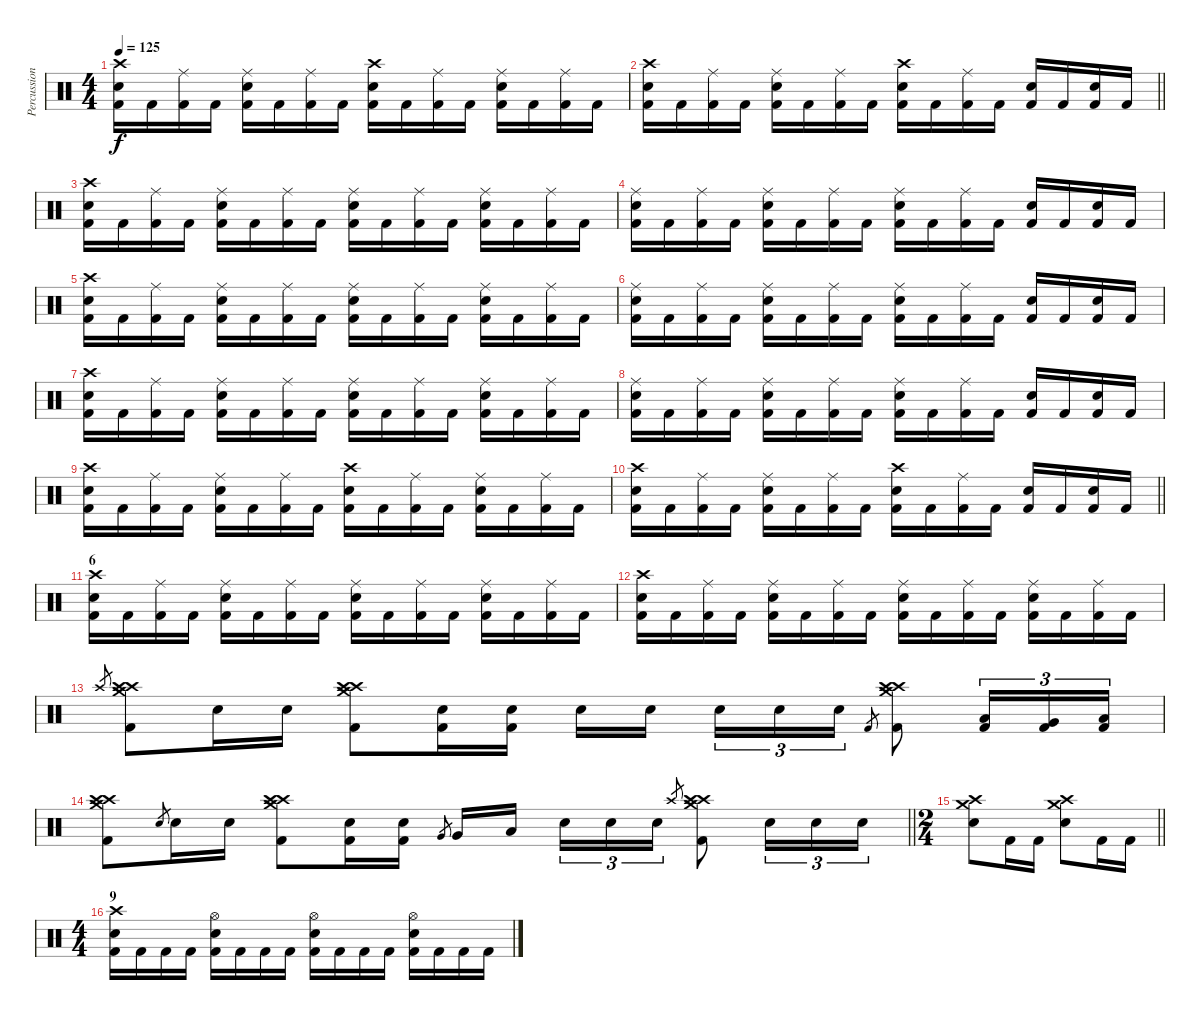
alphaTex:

\track ("Percussion" "Percussion") {instrument percussion}
\staff {score}
\articulation defaults
\ts (4 4)
\tempo 125
\clef neutral
\ks c
("Crash high (hit)" "Snare (hit) 2" "Kick (hit) 2").16{dy f} "Kick (hit) 2".16 ("Ride (middle)" "Kick (hit) 2").16 "Kick (hit) 2".16 ("Ride (middle)" "Snare (hit) 2" "Kick (hit) 2").16 "Kick (hit) 2".16 ("Ride (middle)" "Kick (hit) 2").16 "Kick (hit) 2".16 ("Crash high (hit)" "Snare (hit) 2" "Kick (hit) 2").16 "Kick (hit) 2".16 ("Ride (middle)" "Kick (hit) 2").16 "Kick (hit) 2".16 ("Ride (middle)" "Snare (hit) 2" "Kick (hit) 2").16 "Kick (hit) 2".16 ("Ride (middle)" "Kick (hit) 2").16 "Kick (hit) 2".16 |
\barLineRight lightlight
("Crash high (hit)" "Snare (hit) 2" "Kick (hit) 2").16 "Kick (hit) 2".16 ("Ride (middle)" "Kick (hit) 2").16 "Kick (hit) 2".16 ("Ride (middle)" "Snare (hit) 2" "Kick (hit) 2").16 "Kick (hit) 2".16 ("Ride (middle)" "Kick (hit) 2").16 "Kick (hit) 2".16 ("Crash high (hit)" "Snare (hit) 2" "Kick (hit) 2").16 "Kick (hit) 2".16 ("Ride (middle)" "Kick (hit) 2").16 "Kick (hit) 2".16 ("Snare (hit) 2" "Kick (hit) 2").16 "Kick (hit) 2".16 ("Snare (hit) 2" "Kick (hit) 2").16 "Kick (hit) 2".16 |
("Crash high (hit)" "Snare (hit) 2" "Kick (hit) 2").16 "Kick (hit) 2".16 ("Ride (middle)" "Kick (hit) 2").16 "Kick (hit) 2".16 ("Ride (middle)" "Snare (hit) 2" "Kick (hit) 2").16 "Kick (hit) 2".16 ("Ride (middle)" "Kick (hit) 2").16 "Kick (hit) 2".16 ("Ride (middle)" "Snare (hit) 2" "Kick (hit) 2").16 "Kick (hit) 2".16 ("Ride (middle)" "Kick (hit) 2").16 "Kick (hit) 2".16 ("Ride (middle)" "Snare (hit) 2" "Kick (hit) 2").16 "Kick (hit) 2".16 ("Ride (middle)" "Kick (hit) 2").16 "Kick (hit) 2".16 |
("Ride (middle)" "Snare (hit) 2" "Kick (hit) 2").16 "Kick (hit) 2".16 ("Ride (middle)" "Kick (hit) 2").16 "Kick (hit) 2".16 ("Ride (middle)" "Snare (hit) 2" "Kick (hit) 2").16 "Kick (hit) 2".16 ("Ride (middle)" "Kick (hit) 2").16 "Kick (hit) 2".16 ("Ride (middle)" "Snare (hit) 2" "Kick (hit) 2").16 "Kick (hit) 2".16 ("Ride (middle)" "Kick (hit) 2").16 "Kick (hit) 2".16 ("Snare (hit) 2" "Kick (hit) 2").16 "Kick (hit) 2".16 ("Snare (hit) 2" "Kick (hit) 2").16 "Kick (hit) 2".16 |
("Crash high (hit)" "Snare (hit) 2" "Kick (hit) 2").16 "Kick (hit) 2".16 ("Ride (middle)" "Kick (hit) 2").16 "Kick (hit) 2".16 ("Ride (middle)" "Snare (hit) 2" "Kick (hit) 2").16 "Kick (hit) 2".16 ("Ride (middle)" "Kick (hit) 2").16 "Kick (hit) 2".16 ("Ride (middle)" "Snare (hit) 2" "Kick (hit) 2").16 "Kick (hit) 2".16 ("Ride (middle)" "Kick (hit) 2").16 "Kick (hit) 2".16 ("Ride (middle)" "Snare (hit) 2" "Kick (hit) 2").16 "Kick (hit) 2".16 ("Ride (middle)" "Kick (hit) 2").16 "Kick (hit) 2".16 |
("Ride (middle)" "Snare (hit) 2" "Kick (hit) 2").16 "Kick (hit) 2".16 ("Ride (middle)" "Kick (hit) 2").16 "Kick (hit) 2".16 ("Ride (middle)" "Snare (hit) 2" "Kick (hit) 2").16 "Kick (hit) 2".16 ("Ride (middle)" "Kick (hit) 2").16 "Kick (hit) 2".16 ("Ride (middle)" "Snare (hit) 2" "Kick (hit) 2").16 "Kick (hit) 2".16 ("Ride (middle)" "Kick (hit) 2").16 "Kick (hit) 2".16 ("Snare (hit) 2" "Kick (hit) 2").16 "Kick (hit) 2".16 ("Snare (hit) 2" "Kick (hit) 2").16 "Kick (hit) 2".16 |
("Crash high (hit)" "Snare (hit) 2" "Kick (hit) 2").16 "Kick (hit) 2".16 ("Ride (middle)" "Kick (hit) 2").16 "Kick (hit) 2".16 ("Ride (middle)" "Snare (hit) 2" "Kick (hit) 2").16 "Kick (hit) 2".16 ("Ride (middle)" "Kick (hit) 2").16 "Kick (hit) 2".16 ("Ride (middle)" "Snare (hit) 2" "Kick (hit) 2").16 "Kick (hit) 2".16 ("Ride (middle)" "Kick (hit) 2").16 "Kick (hit) 2".16 ("Ride (middle)" "Snare (hit) 2" "Kick (hit) 2").16 "Kick (hit) 2".16 ("Ride (middle)" "Kick (hit) 2").16 "Kick (hit) 2".16 |
("Ride (middle)" "Snare (hit) 2" "Kick (hit) 2").16 "Kick (hit) 2".16 ("Ride (middle)" "Kick (hit) 2").16 "Kick (hit) 2".16 ("Ride (middle)" "Snare (hit) 2" "Kick (hit) 2").16 "Kick (hit) 2".16 ("Ride (middle)" "Kick (hit) 2").16 "Kick (hit) 2".16 ("Ride (middle)" "Snare (hit) 2" "Kick (hit) 2").16 "Kick (hit) 2".16 ("Ride (middle)" "Kick (hit) 2").16 "Kick (hit) 2".16 ("Snare (hit) 2" "Kick (hit) 2").16 "Kick (hit) 2".16 ("Snare (hit) 2" "Kick (hit) 2").16 "Kick (hit) 2".16 |
("Crash high (hit)" "Snare (hit) 2" "Kick (hit) 2").16 "Kick (hit) 2".16 ("Ride (middle)" "Kick (hit) 2").16 "Kick (hit) 2".16 ("Ride (middle)" "Snare (hit) 2" "Kick (hit) 2").16 "Kick (hit) 2".16 ("Ride (middle)" "Kick (hit) 2").16 "Kick (hit) 2".16 ("Crash high (hit)" "Snare (hit) 2" "Kick (hit) 2").16 "Kick (hit) 2".16 ("Ride (middle)" "Kick (hit) 2").16 "Kick (hit) 2".16 ("Ride (middle)" "Snare (hit) 2" "Kick (hit) 2").16 "Kick (hit) 2".16 ("Ride (middle)" "Kick (hit) 2").16 "Kick (hit) 2".16 |
\barLineRight lightlight
("Crash high (hit)" "Snare (hit) 2" "Kick (hit) 2").16 "Kick (hit) 2".16 ("Ride (middle)" "Kick (hit) 2").16 "Kick (hit) 2".16 ("Ride (middle)" "Snare (hit) 2" "Kick (hit) 2").16 "Kick (hit) 2".16 ("Ride (middle)" "Kick (hit) 2").16 "Kick (hit) 2".16 ("Crash high (hit)" "Snare (hit) 2" "Kick (hit) 2").16 "Kick (hit) 2".16 ("Ride (middle)" "Kick (hit) 2").16 "Kick (hit) 2".16 ("Snare (hit) 2" "Kick (hit) 2").16 "Kick (hit) 2".16 ("Snare (hit) 2" "Kick (hit) 2").16 "Kick (hit) 2".16 |
\section ("" "6")
("Crash high (hit)" "Snare (hit) 2" "Kick (hit) 2").16 "Kick (hit) 2".16 ("Ride (middle)" "Kick (hit) 2").16 "Kick (hit) 2".16 ("Ride (middle)" "Snare (hit) 2" "Kick (hit) 2").16 "Kick (hit) 2".16 ("Ride (middle)" "Kick (hit) 2").16 "Kick (hit) 2".16 ("Ride (middle)" "Snare (hit) 2" "Kick (hit) 2").16 "Kick (hit) 2".16 ("Ride (middle)" "Kick (hit) 2").16 "Kick (hit) 2".16 ("Ride (middle)" "Snare (hit) 2" "Kick (hit) 2").16 "Kick (hit) 2".16 ("Ride (middle)" "Kick (hit) 2").16 "Kick (hit) 2".16 |
("Crash high (hit)" "Snare (hit) 2" "Kick (hit) 2").16 "Kick (hit) 2".16 ("Ride (middle)" "Kick (hit) 2").16 "Kick (hit) 2".16 ("Ride (middle)" "Snare (hit) 2" "Kick (hit) 2").16 "Kick (hit) 2".16 ("Ride (middle)" "Kick (hit) 2").16 "Kick (hit) 2".16 ("Ride (middle)" "Snare (hit) 2" "Kick (hit) 2").16 "Kick (hit) 2".16 ("Ride (middle)" "Kick (hit) 2").16 "Kick (hit) 2".16 ("Ride (middle)" "Snare (hit) 2" "Kick (hit) 2").16 "Kick (hit) 2".16 ("Ride (middle)" "Kick (hit) 2").16 "Kick (hit) 2".16 |
"Crash high (hit)".8{gr} ("Crash high (hit)" "Crash medium (hit)" "Crash high (hit)" "Kick (hit) 2").8 "Snare (hit) 2".16 "Snare (hit) 2".16 ("Crash high (hit)" "Crash medium (hit)" "Crash high (hit)" "Kick (hit) 2").8 ("Snare (hit) 2" "Kick (hit) 2").16 ("Snare (hit) 2" "Kick (hit) 2").16 "Snare (hit) 2".16 "Snare (hit) 2".16{beam splitsecondary} "Snare (hit) 2".16{tu (3 2)} "Snare (hit) 2".16{tu (3 2)} "Snare (hit) 2".16{tu (3 2)} "Kick (hit) 2".8{gr} ("Crash high (hit)" "Crash medium (hit)" "Crash high (hit)" "Kick (hit) 2").8 ("Low Tom (hit)" "Kick (hit) 2").16{tu (3 2)} ("Very Low Tom (hit)" "Kick (hit) 2").16{tu (3 2)} ("Low Floor Tom (hit)" "Kick (hit) 2").16{tu (3 2)} |
\barLineRight lightlight
("Crash high (hit)" "Crash medium (hit)" "Crash high (hit)" "Kick (hit) 2").8 "Snare (hit) 2".8{gr} "Snare (hit) 2".16 "Snare (hit) 2".16 ("Crash high (hit)" "Crash medium (hit)" "Crash high (hit)" "Kick (hit) 2").8 ("Snare (hit) 2" "Kick (hit) 2").16 ("Snare (hit) 2" "Kick (hit) 2").16 "Very Low Tom (hit)".8{gr} "Very Low Tom (hit)".16 "Low Floor Tom (hit)".16{beam splitsecondary} "Snare (hit) 2".16{tu (3 2)} "Snare (hit) 2".16{tu (3 2)} "Snare (hit) 2".16{tu (3 2)} "Crash high (hit)".8{gr} ("Crash high (hit)" "Crash medium (hit)" "Crash high (hit)" "Kick (hit) 2").8 "Snare (hit) 2".16{tu (3 2)} "Snare (hit) 2".16{tu (3 2)} "Snare (hit) 2".16{tu (3 2)} |
\ts (2 4)
\barLineRight lightlight
("Crash medium (hit)" "Crash high (hit)" "Snare (hit) 2").8 "Kick (hit) 2".16 "Kick (hit) 2".16 ("Crash high (hit)" "Crash medium (hit)" "Snare (hit) 2").8 "Kick (hit) 2".16 "Kick (hit) 2".16 |
\ts (4 4)
\section ("" "9")
("Crash high (hit)" "Snare (hit) 2" "Kick (hit) 2").16 "Kick (hit) 2".16 "Kick (hit) 2".16 "Kick (hit) 2".16 ("Hi-Hat (open)" "Snare (hit) 2" "Kick (hit) 2").16 "Kick (hit) 2".16 "Kick (hit) 2".16 "Kick (hit) 2".16 ("Hi-Hat (open)" "Snare (hit) 2" "Kick (hit) 2").16 "Kick (hit) 2".16 "Kick (hit) 2".16 "Kick (hit) 2".16 ("Hi-Hat (open)" "Snare (hit) 2" "Kick (hit) 2").16 "Kick (hit) 2".16 "Kick (hit) 2".16 "Kick (hit) 2".16
